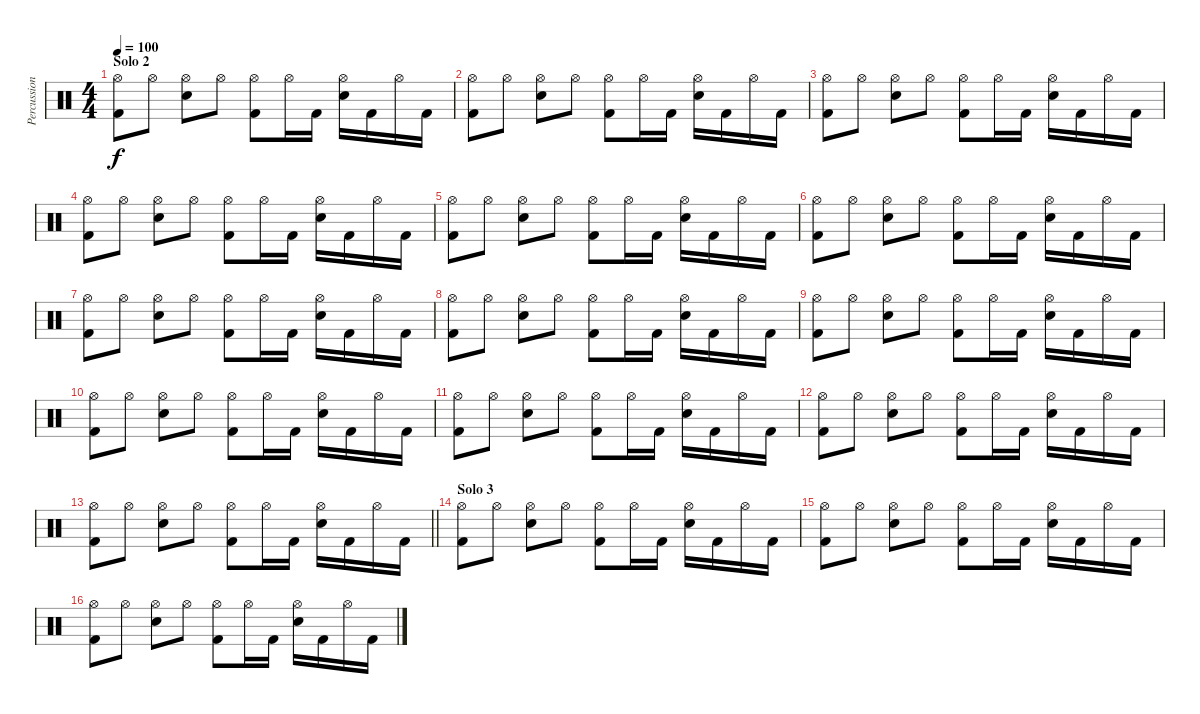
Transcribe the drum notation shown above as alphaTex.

\track ("Percussion" "Percussion") {instrument percussion}
\staff {score}
\articulation defaults
\ts (4 4)
\section ("" "Solo 2")
\tempo 100
\clef neutral
\ks c
("Hi-Hat (open)" "Kick (hit) 2").8{dy f} "Hi-Hat (open)".8 ("Hi-Hat (open)" "Electric Snare (hit)").8 "Hi-Hat (open)".8 ("Hi-Hat (open)" "Kick (hit) 2").8 "Hi-Hat (open)".16 "Kick (hit) 2".16 ("Hi-Hat (open)" "Electric Snare (hit)").16 "Kick (hit) 2".16 "Hi-Hat (open)".16 "Kick (hit) 2".16 |
("Hi-Hat (open)" "Kick (hit) 2").8 "Hi-Hat (open)".8 ("Hi-Hat (open)" "Electric Snare (hit)").8 "Hi-Hat (open)".8 ("Hi-Hat (open)" "Kick (hit) 2").8 "Hi-Hat (open)".16 "Kick (hit) 2".16 ("Hi-Hat (open)" "Electric Snare (hit)").16 "Kick (hit) 2".16 "Hi-Hat (open)".16 "Kick (hit) 2".16 |
("Hi-Hat (open)" "Kick (hit) 2").8 "Hi-Hat (open)".8 ("Hi-Hat (open)" "Electric Snare (hit)").8 "Hi-Hat (open)".8 ("Hi-Hat (open)" "Kick (hit) 2").8 "Hi-Hat (open)".16 "Kick (hit) 2".16 ("Hi-Hat (open)" "Electric Snare (hit)").16 "Kick (hit) 2".16 "Hi-Hat (open)".16 "Kick (hit) 2".16 |
("Hi-Hat (open)" "Kick (hit) 2").8 "Hi-Hat (open)".8 ("Hi-Hat (open)" "Electric Snare (hit)").8 "Hi-Hat (open)".8 ("Hi-Hat (open)" "Kick (hit) 2").8 "Hi-Hat (open)".16 "Kick (hit) 2".16 ("Hi-Hat (open)" "Electric Snare (hit)").16 "Kick (hit) 2".16 "Hi-Hat (open)".16 "Kick (hit) 2".16 |
("Hi-Hat (open)" "Kick (hit) 2").8 "Hi-Hat (open)".8 ("Hi-Hat (open)" "Electric Snare (hit)").8 "Hi-Hat (open)".8 ("Hi-Hat (open)" "Kick (hit) 2").8 "Hi-Hat (open)".16 "Kick (hit) 2".16 ("Hi-Hat (open)" "Electric Snare (hit)").16 "Kick (hit) 2".16 "Hi-Hat (open)".16 "Kick (hit) 2".16 |
("Hi-Hat (open)" "Kick (hit) 2").8 "Hi-Hat (open)".8 ("Hi-Hat (open)" "Electric Snare (hit)").8 "Hi-Hat (open)".8 ("Hi-Hat (open)" "Kick (hit) 2").8 "Hi-Hat (open)".16 "Kick (hit) 2".16 ("Hi-Hat (open)" "Electric Snare (hit)").16 "Kick (hit) 2".16 "Hi-Hat (open)".16 "Kick (hit) 2".16 |
("Hi-Hat (open)" "Kick (hit) 2").8 "Hi-Hat (open)".8 ("Hi-Hat (open)" "Electric Snare (hit)").8 "Hi-Hat (open)".8 ("Hi-Hat (open)" "Kick (hit) 2").8 "Hi-Hat (open)".16 "Kick (hit) 2".16 ("Hi-Hat (open)" "Electric Snare (hit)").16 "Kick (hit) 2".16 "Hi-Hat (open)".16 "Kick (hit) 2".16 |
("Hi-Hat (open)" "Kick (hit) 2").8 "Hi-Hat (open)".8 ("Hi-Hat (open)" "Electric Snare (hit)").8 "Hi-Hat (open)".8 ("Hi-Hat (open)" "Kick (hit) 2").8 "Hi-Hat (open)".16 "Kick (hit) 2".16 ("Hi-Hat (open)" "Electric Snare (hit)").16 "Kick (hit) 2".16 "Hi-Hat (open)".16 "Kick (hit) 2".16 |
("Hi-Hat (open)" "Kick (hit) 2").8 "Hi-Hat (open)".8 ("Hi-Hat (open)" "Electric Snare (hit)").8 "Hi-Hat (open)".8 ("Hi-Hat (open)" "Kick (hit) 2").8 "Hi-Hat (open)".16 "Kick (hit) 2".16 ("Hi-Hat (open)" "Electric Snare (hit)").16 "Kick (hit) 2".16 "Hi-Hat (open)".16 "Kick (hit) 2".16 |
("Hi-Hat (open)" "Kick (hit) 2").8 "Hi-Hat (open)".8 ("Hi-Hat (open)" "Electric Snare (hit)").8 "Hi-Hat (open)".8 ("Hi-Hat (open)" "Kick (hit) 2").8 "Hi-Hat (open)".16 "Kick (hit) 2".16 ("Hi-Hat (open)" "Electric Snare (hit)").16 "Kick (hit) 2".16 "Hi-Hat (open)".16 "Kick (hit) 2".16 |
("Hi-Hat (open)" "Kick (hit) 2").8 "Hi-Hat (open)".8 ("Hi-Hat (open)" "Electric Snare (hit)").8 "Hi-Hat (open)".8 ("Hi-Hat (open)" "Kick (hit) 2").8 "Hi-Hat (open)".16 "Kick (hit) 2".16 ("Hi-Hat (open)" "Electric Snare (hit)").16 "Kick (hit) 2".16 "Hi-Hat (open)".16 "Kick (hit) 2".16 |
("Hi-Hat (open)" "Kick (hit) 2").8 "Hi-Hat (open)".8 ("Hi-Hat (open)" "Electric Snare (hit)").8 "Hi-Hat (open)".8 ("Hi-Hat (open)" "Kick (hit) 2").8 "Hi-Hat (open)".16 "Kick (hit) 2".16 ("Hi-Hat (open)" "Electric Snare (hit)").16 "Kick (hit) 2".16 "Hi-Hat (open)".16 "Kick (hit) 2".16 |
\barLineRight lightlight
("Hi-Hat (open)" "Kick (hit) 2").8 "Hi-Hat (open)".8 ("Hi-Hat (open)" "Electric Snare (hit)").8 "Hi-Hat (open)".8 ("Hi-Hat (open)" "Kick (hit) 2").8 "Hi-Hat (open)".16 "Kick (hit) 2".16 ("Hi-Hat (open)" "Electric Snare (hit)").16 "Kick (hit) 2".16 "Hi-Hat (open)".16 "Kick (hit) 2".16 |
\section ("" "Solo 3")
("Hi-Hat (open)" "Kick (hit) 2").8 "Hi-Hat (open)".8 ("Hi-Hat (open)" "Electric Snare (hit)").8 "Hi-Hat (open)".8 ("Hi-Hat (open)" "Kick (hit) 2").8 "Hi-Hat (open)".16 "Kick (hit) 2".16 ("Hi-Hat (open)" "Electric Snare (hit)").16 "Kick (hit) 2".16 "Hi-Hat (open)".16 "Kick (hit) 2".16 |
("Hi-Hat (open)" "Kick (hit) 2").8 "Hi-Hat (open)".8 ("Hi-Hat (open)" "Electric Snare (hit)").8 "Hi-Hat (open)".8 ("Hi-Hat (open)" "Kick (hit) 2").8 "Hi-Hat (open)".16 "Kick (hit) 2".16 ("Hi-Hat (open)" "Electric Snare (hit)").16 "Kick (hit) 2".16 "Hi-Hat (open)".16 "Kick (hit) 2".16 |
("Hi-Hat (open)" "Kick (hit) 2").8 "Hi-Hat (open)".8 ("Hi-Hat (open)" "Electric Snare (hit)").8 "Hi-Hat (open)".8 ("Hi-Hat (open)" "Kick (hit) 2").8 "Hi-Hat (open)".16 "Kick (hit) 2".16 ("Hi-Hat (open)" "Electric Snare (hit)").16 "Kick (hit) 2".16 "Hi-Hat (open)".16 "Kick (hit) 2".16
